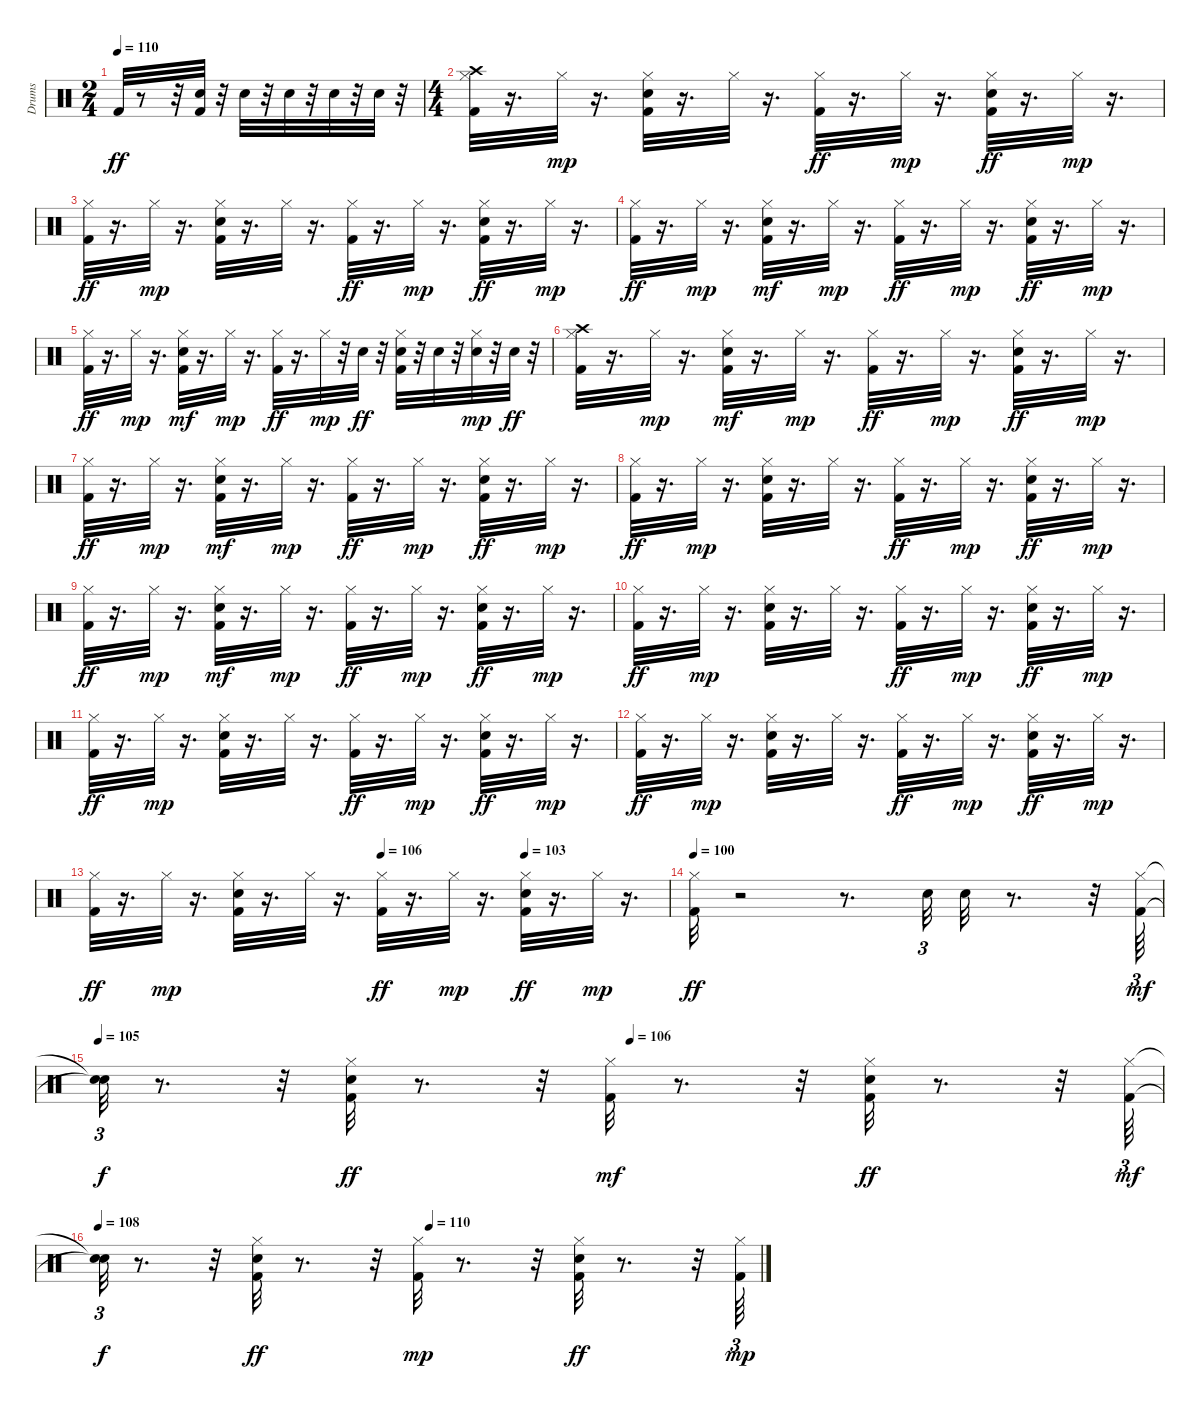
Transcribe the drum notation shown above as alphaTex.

\track ("Drums   " "Drums   ") {instrument percussion}
\staff {score}
\articulation defaults
\ts (2 4)
\tempo 110
\clef neutral
\ks c "Kick (hit) 2".32{dy ff}
r.8 r.32 ("Snare (hit) 2" "Kick (hit) 2").32 r.32 "Snare (hit) 2".32 r.32 "Snare (hit) 2".32 r.32 "Snare (hit) 2".32 r.32 "Snare (hit) 2".32 r.32 |
\ts (4 4)
("Crash high (hit)" "Hi-Hat (closed)" "Kick (hit) 2").32 r.16{d} "Hi-Hat (closed)".32{dy mp} r.16{d} ("Kick (hit) 2" "Snare (hit) 2" "Hi-Hat (closed)").32 r.16{d} "Hi-Hat (closed)".32 r.16{d} ("Hi-Hat (closed)" "Kick (hit) 2").32{dy ff} r.16{d} "Hi-Hat (closed)".32{dy mp} r.16{d} ("Kick (hit) 2" "Hi-Hat (closed)" "Snare (hit) 2").32{dy ff} r.16{d} "Hi-Hat (closed)".32{dy mp} r.16{d} |
("Hi-Hat (closed)" "Kick (hit) 2").32{dy ff} r.16{d} "Hi-Hat (closed)".32{dy mp} r.16{d} ("Kick (hit) 2" "Snare (hit) 2" "Hi-Hat (closed)").32 r.16{d} "Hi-Hat (closed)".32 r.16{d} ("Hi-Hat (closed)" "Kick (hit) 2").32{dy ff} r.16{d} "Hi-Hat (closed)".32{dy mp} r.16{d} ("Kick (hit) 2" "Hi-Hat (closed)" "Snare (hit) 2").32{dy ff} r.16{d} "Hi-Hat (closed)".32{dy mp} r.16{d} |
("Hi-Hat (closed)" "Kick (hit) 2").32{dy ff} r.16{d} "Hi-Hat (closed)".32{dy mp} r.16{d} ("Kick (hit) 2" "Snare (hit) 2" "Hi-Hat (closed)").32{dy mf} r.16{d} "Hi-Hat (closed)".32{dy mp} r.16{d} ("Hi-Hat (closed)" "Kick (hit) 2").32{dy ff} r.16{d} "Hi-Hat (closed)".32{dy mp} r.16{d} ("Kick (hit) 2" "Hi-Hat (closed)" "Snare (hit) 2").32{dy ff} r.16{d} "Hi-Hat (closed)".32{dy mp} r.16{d} |
("Hi-Hat (closed)" "Kick (hit) 2").32{dy ff} r.16{d} "Hi-Hat (closed)".32{dy mp} r.16{d} ("Kick (hit) 2" "Snare (hit) 2" "Hi-Hat (closed)").32{dy mf} r.16{d} "Hi-Hat (closed)".32{dy mp} r.16{d} ("Hi-Hat (closed)" "Kick (hit) 2").32{dy ff} r.16{d} "Hi-Hat (closed)".32{dy mp} r.32 "Snare (hit) 2".32{dy ff} r.32 ("Kick (hit) 2" "Hi-Hat (closed)" "Snare (hit) 2").32 r.32 "Snare (hit) 2".32 r.32 ("Snare (hit) 2" "Hi-Hat (closed)").32{dy mp} r.32 "Snare (hit) 2".32{dy ff} r.32 |
("Crash high (hit)" "Hi-Hat (closed)" "Kick (hit) 2").32 r.16{d} "Hi-Hat (closed)".32{dy mp} r.16{d} ("Kick (hit) 2" "Snare (hit) 2" "Hi-Hat (closed)").32{dy mf} r.16{d} "Hi-Hat (closed)".32{dy mp} r.16{d} ("Hi-Hat (closed)" "Kick (hit) 2").32{dy ff} r.16{d} "Hi-Hat (closed)".32{dy mp} r.16{d} ("Kick (hit) 2" "Hi-Hat (closed)" "Snare (hit) 2").32{dy ff} r.16{d} "Hi-Hat (closed)".32{dy mp} r.16{d} |
("Hi-Hat (closed)" "Kick (hit) 2").32{dy ff} r.16{d} "Hi-Hat (closed)".32{dy mp} r.16{d} ("Kick (hit) 2" "Snare (hit) 2" "Hi-Hat (closed)").32{dy mf} r.16{d} "Hi-Hat (closed)".32{dy mp} r.16{d} ("Hi-Hat (closed)" "Kick (hit) 2").32{dy ff} r.16{d} "Hi-Hat (closed)".32{dy mp} r.16{d} ("Kick (hit) 2" "Hi-Hat (closed)" "Snare (hit) 2").32{dy ff} r.16{d} "Hi-Hat (closed)".32{dy mp} r.16{d} |
("Hi-Hat (closed)" "Kick (hit) 2").32{dy ff} r.16{d} "Hi-Hat (closed)".32{dy mp} r.16{d} ("Kick (hit) 2" "Snare (hit) 2" "Hi-Hat (closed)").32 r.16{d} "Hi-Hat (closed)".32 r.16{d} ("Hi-Hat (closed)" "Kick (hit) 2").32{dy ff} r.16{d} "Hi-Hat (closed)".32{dy mp} r.16{d} ("Kick (hit) 2" "Hi-Hat (closed)" "Snare (hit) 2").32{dy ff} r.16{d} "Hi-Hat (closed)".32{dy mp} r.16{d} |
("Hi-Hat (closed)" "Kick (hit) 2").32{dy ff} r.16{d} "Hi-Hat (closed)".32{dy mp} r.16{d} ("Kick (hit) 2" "Snare (hit) 2" "Hi-Hat (closed)").32{dy mf} r.16{d} "Hi-Hat (closed)".32{dy mp} r.16{d} ("Hi-Hat (closed)" "Kick (hit) 2").32{dy ff} r.16{d} "Hi-Hat (closed)".32{dy mp} r.16{d} ("Kick (hit) 2" "Hi-Hat (closed)" "Snare (hit) 2").32{dy ff} r.16{d} "Hi-Hat (closed)".32{dy mp} r.16{d} |
("Hi-Hat (closed)" "Kick (hit) 2").32{dy ff} r.16{d} "Hi-Hat (closed)".32{dy mp} r.16{d} ("Kick (hit) 2" "Snare (hit) 2" "Hi-Hat (closed)").32 r.16{d} "Hi-Hat (closed)".32 r.16{d} ("Hi-Hat (closed)" "Kick (hit) 2").32{dy ff} r.16{d} "Hi-Hat (closed)".32{dy mp} r.16{d} ("Kick (hit) 2" "Hi-Hat (closed)" "Snare (hit) 2").32{dy ff} r.16{d} "Hi-Hat (closed)".32{dy mp} r.16{d} |
("Hi-Hat (closed)" "Kick (hit) 2").32{dy ff} r.16{d} "Hi-Hat (closed)".32{dy mp} r.16{d} ("Kick (hit) 2" "Snare (hit) 2" "Hi-Hat (closed)").32 r.16{d} "Hi-Hat (closed)".32 r.16{d} ("Hi-Hat (closed)" "Kick (hit) 2").32{dy ff} r.16{d} "Hi-Hat (closed)".32{dy mp} r.16{d} ("Kick (hit) 2" "Hi-Hat (closed)" "Snare (hit) 2").32{dy ff} r.16{d} "Hi-Hat (closed)".32{dy mp} r.16{d} |
("Hi-Hat (closed)" "Kick (hit) 2").32{dy ff} r.16{d} "Hi-Hat (closed)".32{dy mp} r.16{d} ("Kick (hit) 2" "Snare (hit) 2" "Hi-Hat (closed)").32 r.16{d} "Hi-Hat (closed)".32 r.16{d} ("Hi-Hat (closed)" "Kick (hit) 2").32{dy ff} r.16{d} "Hi-Hat (closed)".32{dy mp} r.16{d} ("Kick (hit) 2" "Hi-Hat (closed)" "Snare (hit) 2").32{dy ff} r.16{d} "Hi-Hat (closed)".32{dy mp} r.16{d} |
\tempo (106 0.5)
\tempo (103 0.75)
("Hi-Hat (closed)" "Kick (hit) 2").32{dy ff} r.16{d} "Hi-Hat (closed)".32{dy mp} r.16{d} ("Kick (hit) 2" "Snare (hit) 2" "Hi-Hat (closed)").32 r.16{d} "Hi-Hat (closed)".32 r.16{d} ("Hi-Hat (closed)" "Kick (hit) 2").32{dy ff} r.16{d} "Hi-Hat (closed)".32{dy mp} r.16{d} ("Kick (hit) 2" "Hi-Hat (closed)" "Snare (hit) 2").32{dy ff} r.16{d} "Hi-Hat (closed)".32{dy mp} r.16{d} |
\tempo 100
("Hi-Hat (closed)" "Kick (hit) 2").32{dy ff} r.2 r.8{d} "Snare (hit) 2".32{tu (3 2)} "Snare (hit) 2".32 r.8{d} r.32 ("Kick (hit) 2" "Hi-Hat (closed)").64{tu (3 2) dy mf} |
\tempo 105
\tempo (106 0.5)
("Snare (hit)"{t} "Snare (hit)"{t}).32{tu (3 2) dy f} r.8{d} r.32 ("Hi-Hat (closed)" "Kick (hit) 2" "Snare (hit) 2").32{dy ff} r.8{d} r.32 ("Kick (hit) 2" "Hi-Hat (closed)").32{dy mf} r.8{d} r.32 ("Hi-Hat (closed)" "Snare (hit) 2" "Kick (hit) 2").32{dy ff} r.8{d} r.32 ("Kick (hit) 2" "Hi-Hat (closed)").64{tu (3 2) dy mf} |
\tempo 108
\tempo (110 0.5)
("Snare (hit)"{t} "Snare (hit)"{t}).32{tu (3 2) dy f} r.8{d} r.32 ("Hi-Hat (closed)" "Kick (hit) 2" "Snare (hit) 2").32{dy ff} r.8{d} r.32 ("Kick (hit) 2" "Hi-Hat (closed)").32{dy mp} r.8{d} r.32 ("Hi-Hat (closed)" "Snare (hit) 2" "Kick (hit) 2").32{dy ff} r.8{d} r.32 ("Kick (hit) 2" "Hi-Hat (closed)").64{tu (3 2) dy mp}
